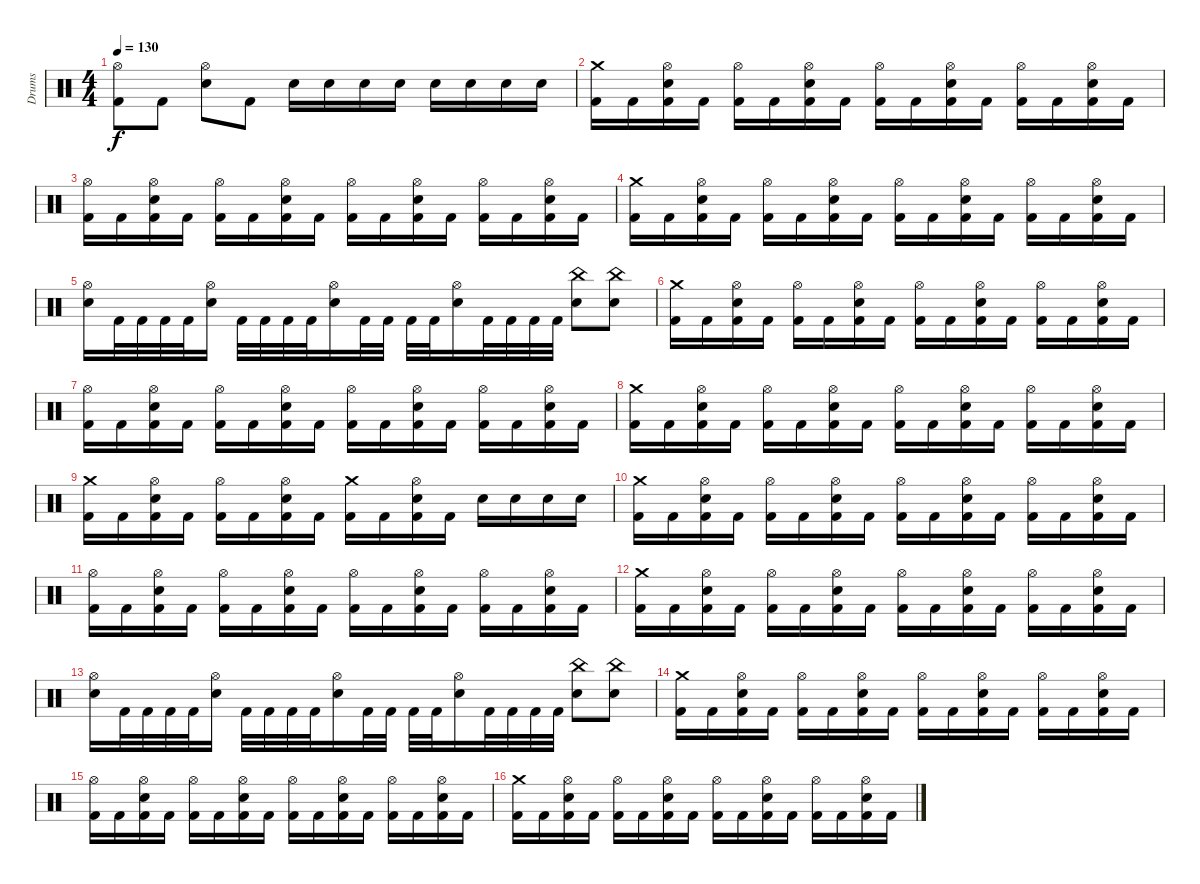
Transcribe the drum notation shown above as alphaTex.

\track ("Drums" "Drums") {instrument percussion}
\staff {score}
\articulation defaults
\ts (4 4)
\tempo 130
\clef neutral
\ks c
("Kick (hit) 2" "Hi-Hat (open)").8{dy f} "Kick (hit) 2".8 ("Electric Snare (hit)" "Hi-Hat (open)").8 "Kick (hit) 2".8 "Electric Snare (hit)".16 "Electric Snare (hit)".16 "Electric Snare (hit)".16 "Electric Snare (hit)".16 "Electric Snare (hit)".16 "Electric Snare (hit)".16 "Electric Snare (hit)".16 "Electric Snare (hit)".16 |
("Kick (hit) 2" "Crash medium (hit)").16 "Kick (hit) 2".16 ("Hi-Hat (open)" "Kick (hit) 2" "Electric Snare (hit)").16 "Kick (hit) 2".16 ("Kick (hit) 2" "Hi-Hat (open)").16 "Kick (hit) 2".16 ("Kick (hit) 2" "Electric Snare (hit)" "Hi-Hat (open)").16 "Kick (hit) 2".16 ("Kick (hit) 2" "Hi-Hat (open)").16 "Kick (hit) 2".16 ("Kick (hit) 2" "Electric Snare (hit)" "Hi-Hat (open)").16 "Kick (hit) 2".16 ("Kick (hit) 2" "Hi-Hat (open)").16 "Kick (hit) 2".16 ("Kick (hit) 2" "Electric Snare (hit)" "Hi-Hat (open)").16 "Kick (hit) 2".16 |
("Hi-Hat (open)" "Kick (hit) 2").16 "Kick (hit) 2".16 ("Hi-Hat (open)" "Kick (hit) 2" "Electric Snare (hit)").16 "Kick (hit) 2".16 ("Kick (hit) 2" "Hi-Hat (open)").16 "Kick (hit) 2".16 ("Kick (hit) 2" "Electric Snare (hit)" "Hi-Hat (open)").16 "Kick (hit) 2".16 ("Kick (hit) 2" "Hi-Hat (open)").16 "Kick (hit) 2".16 ("Kick (hit) 2" "Electric Snare (hit)" "Hi-Hat (open)").16 "Kick (hit) 2".16 ("Kick (hit) 2" "Hi-Hat (open)").16 "Kick (hit) 2".16 ("Kick (hit) 2" "Electric Snare (hit)" "Hi-Hat (open)").16 "Kick (hit) 2".16 |
("Kick (hit) 2" "Crash medium (hit)").16 "Kick (hit) 2".16 ("Hi-Hat (open)" "Kick (hit) 2" "Electric Snare (hit)").16 "Kick (hit) 2".16 ("Kick (hit) 2" "Hi-Hat (open)").16 "Kick (hit) 2".16 ("Kick (hit) 2" "Electric Snare (hit)" "Hi-Hat (open)").16 "Kick (hit) 2".16 ("Kick (hit) 2" "Hi-Hat (open)").16 "Kick (hit) 2".16 ("Kick (hit) 2" "Electric Snare (hit)" "Hi-Hat (open)").16 "Kick (hit) 2".16 ("Kick (hit) 2" "Hi-Hat (open)").16 "Kick (hit) 2".16 ("Kick (hit) 2" "Electric Snare (hit)" "Hi-Hat (open)").16 "Kick (hit) 2".16 |
("Electric Snare (hit)" "Hi-Hat (open)").16 "Kick (hit) 2".32 "Kick (hit) 2".32 "Kick (hit) 2".32 "Kick (hit) 2".32 ("Hi-Hat (open)" "Electric Snare (hit)").16 "Kick (hit) 2".32 "Kick (hit) 2".32 "Kick (hit) 2".32 "Kick (hit) 2".32 ("Hi-Hat (open)" "Electric Snare (hit)").16 "Kick (hit) 2".32 "Kick (hit) 2".32 "Kick (hit) 2".32 "Kick (hit) 2".32 ("Hi-Hat (open)" "Electric Snare (hit)").16 "Kick (hit) 2".32 "Kick (hit) 2".32 "Kick (hit) 2".32 "Kick (hit) 2".32 ("China (hit)" "Electric Snare (hit)").8 ("China (hit)" "Electric Snare (hit)").8 |
("Kick (hit) 2" "Crash medium (hit)").16 "Kick (hit) 2".16 ("Hi-Hat (open)" "Kick (hit) 2" "Electric Snare (hit)").16 "Kick (hit) 2".16 ("Kick (hit) 2" "Hi-Hat (open)").16 "Kick (hit) 2".16 ("Kick (hit) 2" "Electric Snare (hit)" "Hi-Hat (open)").16 "Kick (hit) 2".16 ("Kick (hit) 2" "Hi-Hat (open)").16 "Kick (hit) 2".16 ("Kick (hit) 2" "Electric Snare (hit)" "Hi-Hat (open)").16 "Kick (hit) 2".16 ("Kick (hit) 2" "Hi-Hat (open)").16 "Kick (hit) 2".16 ("Kick (hit) 2" "Electric Snare (hit)" "Hi-Hat (open)").16 "Kick (hit) 2".16 |
("Hi-Hat (open)" "Kick (hit) 2").16 "Kick (hit) 2".16 ("Hi-Hat (open)" "Kick (hit) 2" "Electric Snare (hit)").16 "Kick (hit) 2".16 ("Kick (hit) 2" "Hi-Hat (open)").16 "Kick (hit) 2".16 ("Kick (hit) 2" "Electric Snare (hit)" "Hi-Hat (open)").16 "Kick (hit) 2".16 ("Kick (hit) 2" "Hi-Hat (open)").16 "Kick (hit) 2".16 ("Kick (hit) 2" "Electric Snare (hit)" "Hi-Hat (open)").16 "Kick (hit) 2".16 ("Kick (hit) 2" "Hi-Hat (open)").16 "Kick (hit) 2".16 ("Kick (hit) 2" "Electric Snare (hit)" "Hi-Hat (open)").16 "Kick (hit) 2".16 |
("Kick (hit) 2" "Crash medium (hit)").16 "Kick (hit) 2".16 ("Hi-Hat (open)" "Kick (hit) 2" "Electric Snare (hit)").16 "Kick (hit) 2".16 ("Kick (hit) 2" "Hi-Hat (open)").16 "Kick (hit) 2".16 ("Kick (hit) 2" "Electric Snare (hit)" "Hi-Hat (open)").16 "Kick (hit) 2".16 ("Kick (hit) 2" "Hi-Hat (open)").16 "Kick (hit) 2".16 ("Kick (hit) 2" "Electric Snare (hit)" "Hi-Hat (open)").16 "Kick (hit) 2".16 ("Kick (hit) 2" "Hi-Hat (open)").16 "Kick (hit) 2".16 ("Kick (hit) 2" "Electric Snare (hit)" "Hi-Hat (open)").16 "Kick (hit) 2".16 |
("Kick (hit) 2" "Crash medium (hit)").16 "Kick (hit) 2".16 ("Hi-Hat (open)" "Kick (hit) 2" "Electric Snare (hit)").16 "Kick (hit) 2".16 ("Kick (hit) 2" "Hi-Hat (open)").16 "Kick (hit) 2".16 ("Kick (hit) 2" "Electric Snare (hit)" "Hi-Hat (open)").16 "Kick (hit) 2".16 ("Crash medium (hit)" "Kick (hit) 2").16 "Kick (hit) 2".16 ("Kick (hit) 2" "Electric Snare (hit)" "Hi-Hat (open)").16 "Kick (hit) 2".16 "Electric Snare (hit)".16 "Electric Snare (hit)".16 "Electric Snare (hit)".16 "Electric Snare (hit)".16 |
("Kick (hit) 2" "Crash medium (hit)").16 "Kick (hit) 2".16 ("Hi-Hat (open)" "Kick (hit) 2" "Electric Snare (hit)").16 "Kick (hit) 2".16 ("Kick (hit) 2" "Hi-Hat (open)").16 "Kick (hit) 2".16 ("Kick (hit) 2" "Electric Snare (hit)" "Hi-Hat (open)").16 "Kick (hit) 2".16 ("Kick (hit) 2" "Hi-Hat (open)").16 "Kick (hit) 2".16 ("Kick (hit) 2" "Electric Snare (hit)" "Hi-Hat (open)").16 "Kick (hit) 2".16 ("Kick (hit) 2" "Hi-Hat (open)").16 "Kick (hit) 2".16 ("Kick (hit) 2" "Electric Snare (hit)" "Hi-Hat (open)").16 "Kick (hit) 2".16 |
("Hi-Hat (open)" "Kick (hit) 2").16 "Kick (hit) 2".16 ("Hi-Hat (open)" "Kick (hit) 2" "Electric Snare (hit)").16 "Kick (hit) 2".16 ("Kick (hit) 2" "Hi-Hat (open)").16 "Kick (hit) 2".16 ("Kick (hit) 2" "Electric Snare (hit)" "Hi-Hat (open)").16 "Kick (hit) 2".16 ("Kick (hit) 2" "Hi-Hat (open)").16 "Kick (hit) 2".16 ("Kick (hit) 2" "Electric Snare (hit)" "Hi-Hat (open)").16 "Kick (hit) 2".16 ("Kick (hit) 2" "Hi-Hat (open)").16 "Kick (hit) 2".16 ("Kick (hit) 2" "Electric Snare (hit)" "Hi-Hat (open)").16 "Kick (hit) 2".16 |
("Kick (hit) 2" "Crash medium (hit)").16 "Kick (hit) 2".16 ("Hi-Hat (open)" "Kick (hit) 2" "Electric Snare (hit)").16 "Kick (hit) 2".16 ("Kick (hit) 2" "Hi-Hat (open)").16 "Kick (hit) 2".16 ("Kick (hit) 2" "Electric Snare (hit)" "Hi-Hat (open)").16 "Kick (hit) 2".16 ("Kick (hit) 2" "Hi-Hat (open)").16 "Kick (hit) 2".16 ("Kick (hit) 2" "Electric Snare (hit)" "Hi-Hat (open)").16 "Kick (hit) 2".16 ("Kick (hit) 2" "Hi-Hat (open)").16 "Kick (hit) 2".16 ("Kick (hit) 2" "Electric Snare (hit)" "Hi-Hat (open)").16 "Kick (hit) 2".16 |
("Electric Snare (hit)" "Hi-Hat (open)").16 "Kick (hit) 2".32 "Kick (hit) 2".32 "Kick (hit) 2".32 "Kick (hit) 2".32 ("Hi-Hat (open)" "Electric Snare (hit)").16 "Kick (hit) 2".32 "Kick (hit) 2".32 "Kick (hit) 2".32 "Kick (hit) 2".32 ("Hi-Hat (open)" "Electric Snare (hit)").16 "Kick (hit) 2".32 "Kick (hit) 2".32 "Kick (hit) 2".32 "Kick (hit) 2".32 ("Hi-Hat (open)" "Electric Snare (hit)").16 "Kick (hit) 2".32 "Kick (hit) 2".32 "Kick (hit) 2".32 "Kick (hit) 2".32 ("China (hit)" "Electric Snare (hit)").8 ("China (hit)" "Electric Snare (hit)").8 |
("Kick (hit) 2" "Crash medium (hit)").16 "Kick (hit) 2".16 ("Hi-Hat (open)" "Kick (hit) 2" "Electric Snare (hit)").16 "Kick (hit) 2".16 ("Kick (hit) 2" "Hi-Hat (open)").16 "Kick (hit) 2".16 ("Kick (hit) 2" "Electric Snare (hit)" "Hi-Hat (open)").16 "Kick (hit) 2".16 ("Kick (hit) 2" "Hi-Hat (open)").16 "Kick (hit) 2".16 ("Kick (hit) 2" "Electric Snare (hit)" "Hi-Hat (open)").16 "Kick (hit) 2".16 ("Kick (hit) 2" "Hi-Hat (open)").16 "Kick (hit) 2".16 ("Kick (hit) 2" "Electric Snare (hit)" "Hi-Hat (open)").16 "Kick (hit) 2".16 |
("Hi-Hat (open)" "Kick (hit) 2").16 "Kick (hit) 2".16 ("Hi-Hat (open)" "Kick (hit) 2" "Electric Snare (hit)").16 "Kick (hit) 2".16 ("Kick (hit) 2" "Hi-Hat (open)").16 "Kick (hit) 2".16 ("Kick (hit) 2" "Electric Snare (hit)" "Hi-Hat (open)").16 "Kick (hit) 2".16 ("Kick (hit) 2" "Hi-Hat (open)").16 "Kick (hit) 2".16 ("Kick (hit) 2" "Electric Snare (hit)" "Hi-Hat (open)").16 "Kick (hit) 2".16 ("Kick (hit) 2" "Hi-Hat (open)").16 "Kick (hit) 2".16 ("Kick (hit) 2" "Electric Snare (hit)" "Hi-Hat (open)").16 "Kick (hit) 2".16 |
("Kick (hit) 2" "Crash medium (hit)").16 "Kick (hit) 2".16 ("Hi-Hat (open)" "Kick (hit) 2" "Electric Snare (hit)").16 "Kick (hit) 2".16 ("Kick (hit) 2" "Hi-Hat (open)").16 "Kick (hit) 2".16 ("Kick (hit) 2" "Electric Snare (hit)" "Hi-Hat (open)").16 "Kick (hit) 2".16 ("Kick (hit) 2" "Hi-Hat (open)").16 "Kick (hit) 2".16 ("Kick (hit) 2" "Electric Snare (hit)" "Hi-Hat (open)").16 "Kick (hit) 2".16 ("Kick (hit) 2" "Hi-Hat (open)").16 "Kick (hit) 2".16 ("Kick (hit) 2" "Electric Snare (hit)" "Hi-Hat (open)").16 "Kick (hit) 2".16
